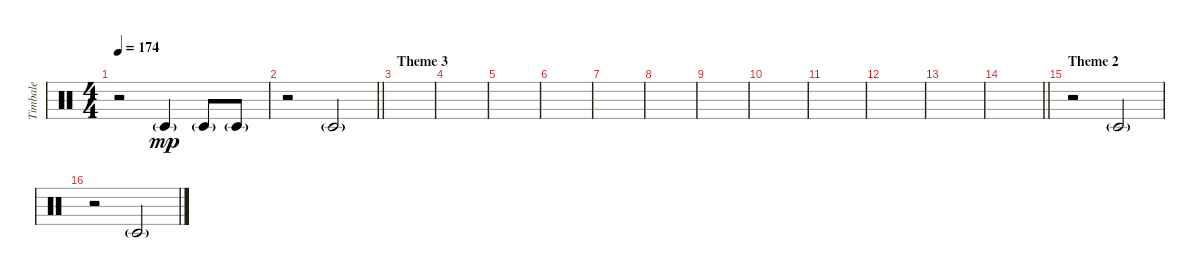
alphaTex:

\track ("Timbale" "Timbale") {instrument percussion}
\staff {score}
\articulation defaults
\ts (4 4)
\tempo 174
\clef neutral
\ks c
r.2{dy mp} "Timbale low (hit)"{g}.4 "Timbale low (hit)"{g}.8 "Timbale low (hit)"{g}.8 |
\barLineRight lightlight
r.2 "Timbale low (hit)"{g}.2 |
\section ("" "Theme 3")
|
|
|
|
|
|
|
|
|
|
|
\barLineRight lightlight
|
\section ("" "Theme 2")
r.2 "Timbale low (hit)"{g}.2 |
r.2 "Timbale low (hit)"{g}.2
